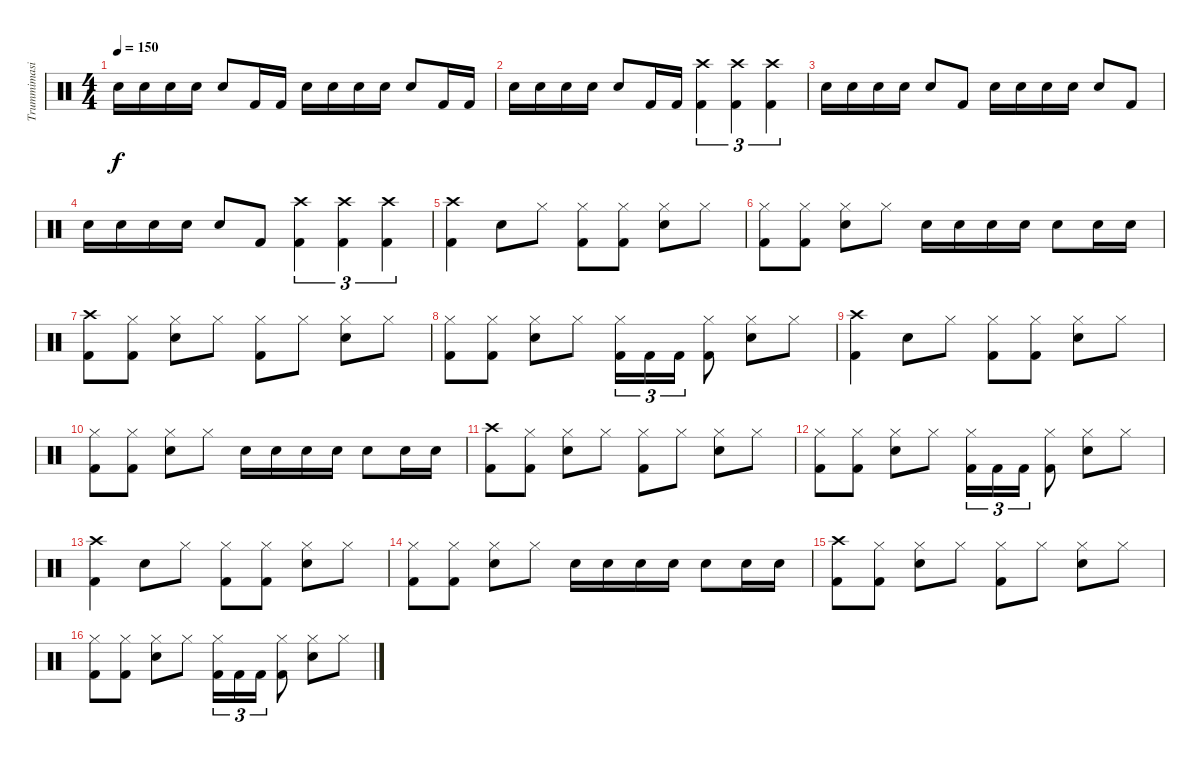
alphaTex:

\track ("Trummimasin" "Trummimasi") {instrument percussion}
\staff {score}
\articulation defaults
\ts (4 4)
\tempo 150
\clef neutral
\ks c "Snare (hit) 2".16{dy f} "Snare (hit) 2".16 "Snare (hit) 2".16 "Snare (hit) 2".16 "Snare (hit) 2".8 "Kick (hit) 2".16 "Kick (hit) 2".16 "Snare (hit) 2".16 "Snare (hit) 2".16 "Snare (hit) 2".16 "Snare (hit) 2".16 "Snare (hit) 2".8 "Kick (hit) 2".16 "Kick (hit) 2".16
|
"Snare (hit) 2".16 "Snare (hit) 2".16 "Snare (hit) 2".16 "Snare (hit) 2".16 "Snare (hit) 2".8 "Kick (hit) 2".16 "Kick (hit) 2".16 ("Crash high (hit)" "Kick (hit) 2").4{tu (3 2)} ("Crash high (hit)" "Kick (hit) 2").4{tu (3 2)} ("Crash high (hit)" "Kick (hit) 2").4{tu (3 2)} |
"Snare (hit) 2".16 "Snare (hit) 2".16 "Snare (hit) 2".16 "Snare (hit) 2".16 "Snare (hit) 2".8 "Kick (hit) 2".8 "Snare (hit) 2".16 "Snare (hit) 2".16 "Snare (hit) 2".16 "Snare (hit) 2".16 "Snare (hit) 2".8 "Kick (hit) 2".8 |
"Snare (hit) 2".16 "Snare (hit) 2".16 "Snare (hit) 2".16 "Snare (hit) 2".16 "Snare (hit) 2".8 "Kick (hit) 2".8 ("Crash high (hit)" "Kick (hit) 2").4{tu (3 2)} ("Crash high (hit)" "Kick (hit) 2").4{tu (3 2)} ("Crash high (hit)" "Kick (hit) 2").4{tu (3 2)} |
("Crash high (hit)" "Kick (hit) 2").4 "Snare (hit) 2".8 "Hi-Hat (closed)".8 ("Hi-Hat (closed)" "Kick (hit) 2").8 ("Hi-Hat (closed)" "Kick (hit) 2").8 ("Hi-Hat (closed)" "Snare (hit) 2").8 "Hi-Hat (closed)".8 |
("Hi-Hat (closed)" "Kick (hit) 2").8 ("Hi-Hat (closed)" "Kick (hit) 2").8 ("Hi-Hat (closed)" "Snare (hit) 2").8 "Hi-Hat (closed)".8 "Snare (hit) 2".16 "Snare (hit) 2".16 "Snare (hit) 2".16 "Snare (hit) 2".16 "Snare (hit) 2".8 "Snare (hit) 2".16 "Snare (hit) 2".16 |
("Crash high (hit)" "Kick (hit) 2").8 ("Hi-Hat (closed)" "Kick (hit) 2").8 ("Hi-Hat (closed)" "Snare (hit) 2").8 "Hi-Hat (closed)".8 ("Hi-Hat (closed)" "Kick (hit) 2").8 "Hi-Hat (closed)".8 ("Hi-Hat (closed)" "Snare (hit) 2").8 "Hi-Hat (closed)".8 |
("Hi-Hat (closed)" "Kick (hit) 2").8 ("Hi-Hat (closed)" "Kick (hit) 2").8 ("Hi-Hat (closed)" "Snare (hit) 2").8 "Hi-Hat (closed)".8 ("Hi-Hat (closed)" "Kick (hit) 2").16{tu (3 2)} "Kick (hit) 2".16{tu (3 2)} "Kick (hit) 2".16{tu (3 2)} ("Hi-Hat (closed)" "Kick (hit) 2").8 ("Hi-Hat (closed)" "Snare (hit) 2").8 "Hi-Hat (closed)".8 |
("Crash high (hit)" "Kick (hit) 2").4 "Snare (hit) 2".8 "Hi-Hat (closed)".8 ("Hi-Hat (closed)" "Kick (hit) 2").8 ("Hi-Hat (closed)" "Kick (hit) 2").8 ("Hi-Hat (closed)" "Snare (hit) 2").8 "Hi-Hat (closed)".8 |
("Hi-Hat (closed)" "Kick (hit) 2").8 ("Hi-Hat (closed)" "Kick (hit) 2").8 ("Hi-Hat (closed)" "Snare (hit) 2").8 "Hi-Hat (closed)".8 "Snare (hit) 2".16 "Snare (hit) 2".16 "Snare (hit) 2".16 "Snare (hit) 2".16 "Snare (hit) 2".8 "Snare (hit) 2".16 "Snare (hit) 2".16 |
("Crash high (hit)" "Kick (hit) 2").8 ("Hi-Hat (closed)" "Kick (hit) 2").8 ("Hi-Hat (closed)" "Snare (hit) 2").8 "Hi-Hat (closed)".8 ("Hi-Hat (closed)" "Kick (hit) 2").8 "Hi-Hat (closed)".8 ("Hi-Hat (closed)" "Snare (hit) 2").8 "Hi-Hat (closed)".8 |
("Hi-Hat (closed)" "Kick (hit) 2").8 ("Hi-Hat (closed)" "Kick (hit) 2").8 ("Hi-Hat (closed)" "Snare (hit) 2").8 "Hi-Hat (closed)".8 ("Hi-Hat (closed)" "Kick (hit) 2").16{tu (3 2)} "Kick (hit) 2".16{tu (3 2)} "Kick (hit) 2".16{tu (3 2)} ("Hi-Hat (closed)" "Kick (hit) 2").8 ("Hi-Hat (closed)" "Snare (hit) 2").8 "Hi-Hat (closed)".8 |
("Crash high (hit)" "Kick (hit) 2").4 "Snare (hit) 2".8 "Hi-Hat (closed)".8 ("Hi-Hat (closed)" "Kick (hit) 2").8 ("Hi-Hat (closed)" "Kick (hit) 2").8 ("Hi-Hat (closed)" "Snare (hit) 2").8 "Hi-Hat (closed)".8 |
("Hi-Hat (closed)" "Kick (hit) 2").8 ("Hi-Hat (closed)" "Kick (hit) 2").8 ("Hi-Hat (closed)" "Snare (hit) 2").8 "Hi-Hat (closed)".8 "Snare (hit) 2".16 "Snare (hit) 2".16 "Snare (hit) 2".16 "Snare (hit) 2".16 "Snare (hit) 2".8 "Snare (hit) 2".16 "Snare (hit) 2".16 |
("Crash high (hit)" "Kick (hit) 2").8 ("Hi-Hat (closed)" "Kick (hit) 2").8 ("Hi-Hat (closed)" "Snare (hit) 2").8 "Hi-Hat (closed)".8 ("Hi-Hat (closed)" "Kick (hit) 2").8 "Hi-Hat (closed)".8 ("Hi-Hat (closed)" "Snare (hit) 2").8 "Hi-Hat (closed)".8 |
("Hi-Hat (closed)" "Kick (hit) 2").8 ("Hi-Hat (closed)" "Kick (hit) 2").8 ("Hi-Hat (closed)" "Snare (hit) 2").8 "Hi-Hat (closed)".8 ("Hi-Hat (closed)" "Kick (hit) 2").16{tu (3 2)} "Kick (hit) 2".16{tu (3 2)} "Kick (hit) 2".16{tu (3 2)} ("Hi-Hat (closed)" "Kick (hit) 2").8 ("Hi-Hat (closed)" "Snare (hit) 2").8 "Hi-Hat (closed)".8
